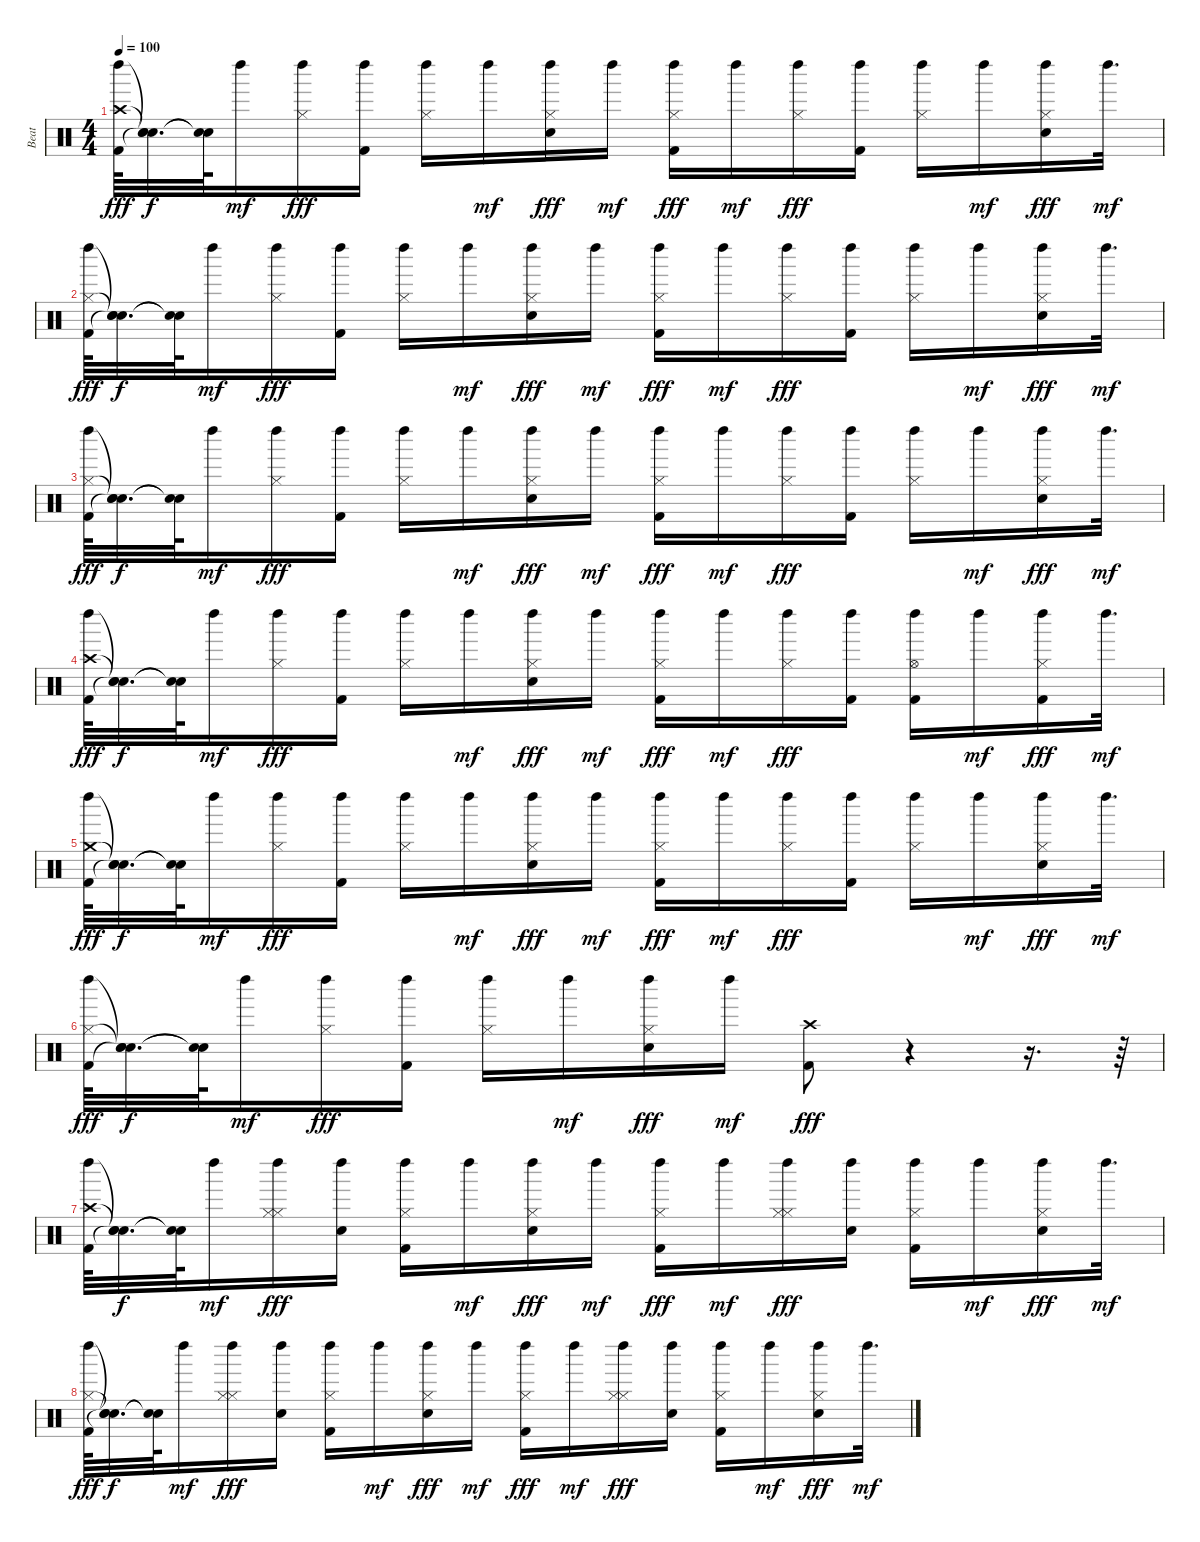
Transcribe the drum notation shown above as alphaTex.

\track ("Beat" "Beat") {instrument percussion}
\staff {score}
\articulation defaults
\ts (4 4)
\tempo 100
\clef neutral
\ks c
("Left Maraca (hit)" "Crash high (hit)" "Kick (hit) 2").64{dy fff} ("Snare (hit)"{t} "Snare (hit)"{t} "Snare (hit)"{t}).32{d dy f} ("Snare (hit)"{t} "Snare (hit)"{t}).64 "Left Maraca (hit)".16{dy mf} ("Left Maraca (hit)" "Hi-Hat (closed)").16{dy fff} ("Left Maraca (hit)" "Kick (hit) 2").16 ("Left Maraca (hit)" "Hi-Hat (closed)").16 "Left Maraca (hit)".16{dy mf} ("Left Maraca (hit)" "Hi-Hat (closed)" "Electric Snare (hit)").16{dy fff} "Left Maraca (hit)".16{dy mf} ("Left Maraca (hit)" "Hi-Hat (closed)" "Kick (hit) 2").16{dy fff} "Left Maraca (hit)".16{dy mf} ("Left Maraca (hit)" "Hi-Hat (closed)").16{dy fff} ("Left Maraca (hit)" "Kick (hit) 2").16 ("Left Maraca (hit)" "Hi-Hat (closed)").16 "Left Maraca (hit)".16{dy mf} ("Left Maraca (hit)" "Hi-Hat (closed)" "Electric Snare (hit)").16{dy fff} "Left Maraca (hit)".32{d dy mf} |
("Left Maraca (hit)" "Hi-Hat (closed)" "Kick (hit) 2").64{dy fff} ("Snare (hit)"{t} "Snare (hit)"{t} "Snare (hit)"{t}).32{d dy f} ("Snare (hit)"{t} "Snare (hit)"{t}).64 "Left Maraca (hit)".16{dy mf} ("Left Maraca (hit)" "Hi-Hat (closed)").16{dy fff} ("Left Maraca (hit)" "Kick (hit) 2").16 ("Left Maraca (hit)" "Hi-Hat (closed)").16 "Left Maraca (hit)".16{dy mf} ("Left Maraca (hit)" "Hi-Hat (closed)" "Electric Snare (hit)").16{dy fff} "Left Maraca (hit)".16{dy mf} ("Left Maraca (hit)" "Hi-Hat (closed)" "Kick (hit) 2").16{dy fff} "Left Maraca (hit)".16{dy mf} ("Left Maraca (hit)" "Hi-Hat (closed)").16{dy fff} ("Left Maraca (hit)" "Kick (hit) 2").16 ("Left Maraca (hit)" "Hi-Hat (closed)").16 "Left Maraca (hit)".16{dy mf} ("Left Maraca (hit)" "Hi-Hat (closed)" "Electric Snare (hit)").16{dy fff} "Left Maraca (hit)".32{d dy mf} |
("Left Maraca (hit)" "Hi-Hat (closed)" "Kick (hit) 2").64{dy fff} ("Snare (hit)"{t} "Snare (hit)"{t} "Snare (hit)"{t}).32{d dy f} ("Snare (hit)"{t} "Snare (hit)"{t}).64 "Left Maraca (hit)".16{dy mf} ("Left Maraca (hit)" "Hi-Hat (closed)").16{dy fff} ("Left Maraca (hit)" "Kick (hit) 2").16 ("Left Maraca (hit)" "Hi-Hat (closed)").16 "Left Maraca (hit)".16{dy mf} ("Left Maraca (hit)" "Hi-Hat (closed)" "Electric Snare (hit)").16{dy fff} "Left Maraca (hit)".16{dy mf} ("Left Maraca (hit)" "Hi-Hat (closed)" "Kick (hit) 2").16{dy fff} "Left Maraca (hit)".16{dy mf} ("Left Maraca (hit)" "Hi-Hat (closed)").16{dy fff} ("Left Maraca (hit)" "Kick (hit) 2").16 ("Left Maraca (hit)" "Hi-Hat (closed)").16 "Left Maraca (hit)".16{dy mf} ("Left Maraca (hit)" "Hi-Hat (closed)" "Electric Snare (hit)").16{dy fff} "Left Maraca (hit)".32{d dy mf} |
("Left Maraca (hit)" "Crash high (hit)" "Kick (hit) 2").64{dy fff} ("Snare (hit)"{t} "Snare (hit)"{t} "Snare (hit)"{t}).32{d dy f} ("Snare (hit)"{t} "Snare (hit)"{t}).64 "Left Maraca (hit)".16{dy mf} ("Left Maraca (hit)" "Hi-Hat (closed)").16{dy fff} ("Left Maraca (hit)" "Kick (hit) 2").16 ("Left Maraca (hit)" "Hi-Hat (closed)").16 "Left Maraca (hit)".16{dy mf} ("Left Maraca (hit)" "Hi-Hat (closed)" "Electric Snare (hit)").16{dy fff} "Left Maraca (hit)".16{dy mf} ("Left Maraca (hit)" "Hi-Hat (closed)" "Kick (hit) 2").16{dy fff} "Left Maraca (hit)".16{dy mf} ("Left Maraca (hit)" "Hi-Hat (closed)").16{dy fff} ("Left Maraca (hit)" "Kick (hit) 2").16 ("Left Maraca (hit)" "Hi-Hat (open)" "Kick (hit) 2").16 "Left Maraca (hit)".16{dy mf} ("Kick (hit) 2" "Left Maraca (hit)" "Hi-Hat (closed)").16{dy fff} "Left Maraca (hit)".32{d dy mf} |
("Left Maraca (hit)" "Crash medium (hit)" "Kick (hit) 2").64{dy fff} ("Snare (hit)"{t} "Snare (hit)"{t} "Snare (hit)"{t}).32{d dy f} ("Snare (hit)"{t} "Snare (hit)"{t}).64 "Left Maraca (hit)".16{dy mf} ("Left Maraca (hit)" "Hi-Hat (closed)").16{dy fff} ("Left Maraca (hit)" "Kick (hit) 2").16 ("Left Maraca (hit)" "Hi-Hat (closed)").16 "Left Maraca (hit)".16{dy mf} ("Left Maraca (hit)" "Hi-Hat (closed)" "Electric Snare (hit)").16{dy fff} "Left Maraca (hit)".16{dy mf} ("Left Maraca (hit)" "Hi-Hat (closed)" "Kick (hit) 2").16{dy fff} "Left Maraca (hit)".16{dy mf} ("Left Maraca (hit)" "Hi-Hat (closed)").16{dy fff} ("Left Maraca (hit)" "Kick (hit) 2").16 ("Left Maraca (hit)" "Hi-Hat (closed)").16 "Left Maraca (hit)".16{dy mf} ("Left Maraca (hit)" "Hi-Hat (closed)" "Electric Snare (hit)").16{dy fff} "Left Maraca (hit)".32{d dy mf} |
("Left Maraca (hit)" "Hi-Hat (closed)" "Kick (hit) 2").64{dy fff} ("Snare (hit)"{t} "Snare (hit)"{t} "Snare (hit)"{t}).32{d dy f} ("Snare (hit)"{t} "Snare (hit)"{t}).64 "Left Maraca (hit)".16{dy mf} ("Left Maraca (hit)" "Hi-Hat (closed)").16{dy fff} ("Left Maraca (hit)" "Kick (hit) 2").16 ("Left Maraca (hit)" "Hi-Hat (closed)").16 "Left Maraca (hit)".16{dy mf} ("Left Maraca (hit)" "Hi-Hat (closed)" "Electric Snare (hit)").16{dy fff} "Left Maraca (hit)".16{dy mf} ("Crash high (hit)" "Kick (hit) 2").8{dy fff} r.4 r.16{d} r.64 |
("Left Maraca (hit)" "Crash high (hit)" "Kick (hit) 2").64 ("Snare (hit)"{t} "Snare (hit)"{t} "Snare (hit)"{t}).32{d dy f} ("Snare (hit)"{t} "Snare (hit)"{t}).64 "Left Maraca (hit)".16{dy mf} ("Hi-Hat (closed)" "Left Maraca (hit)" "Hi-Hat (closed)").16{dy fff} ("Left Maraca (hit)" "Electric Snare (hit)").16 ("Left Maraca (hit)" "Kick (hit) 2" "Hi-Hat (closed)").16 "Left Maraca (hit)".16{dy mf} ("Left Maraca (hit)" "Hi-Hat (closed)" "Electric Snare (hit)").16{dy fff} "Left Maraca (hit)".16{dy mf} ("Left Maraca (hit)" "Hi-Hat (closed)" "Kick (hit) 2").16{dy fff} "Left Maraca (hit)".16{dy mf} ("Hi-Hat (closed)" "Left Maraca (hit)" "Hi-Hat (closed)").16{dy fff} ("Left Maraca (hit)" "Electric Snare (hit)").16 ("Left Maraca (hit)" "Kick (hit) 2" "Hi-Hat (closed)").16 "Left Maraca (hit)".16{dy mf} ("Left Maraca (hit)" "Hi-Hat (closed)" "Electric Snare (hit)").16{dy fff} "Left Maraca (hit)".32{d dy mf} |
("Left Maraca (hit)" "Hi-Hat (closed)" "Kick (hit) 2").64{dy fff} ("Snare (hit)"{t} "Snare (hit)"{t} "Snare (hit)"{t}).32{d dy f} ("Snare (hit)"{t} "Snare (hit)"{t}).64 "Left Maraca (hit)".16{dy mf} ("Hi-Hat (closed)" "Left Maraca (hit)" "Hi-Hat (closed)").16{dy fff} ("Left Maraca (hit)" "Electric Snare (hit)").16 ("Left Maraca (hit)" "Kick (hit) 2" "Hi-Hat (closed)").16 "Left Maraca (hit)".16{dy mf} ("Left Maraca (hit)" "Hi-Hat (closed)" "Electric Snare (hit)").16{dy fff} "Left Maraca (hit)".16{dy mf} ("Left Maraca (hit)" "Hi-Hat (closed)" "Kick (hit) 2").16{dy fff} "Left Maraca (hit)".16{dy mf} ("Hi-Hat (closed)" "Left Maraca (hit)" "Hi-Hat (closed)").16{dy fff} ("Left Maraca (hit)" "Electric Snare (hit)").16 ("Left Maraca (hit)" "Kick (hit) 2" "Hi-Hat (closed)").16 "Left Maraca (hit)".16{dy mf} ("Left Maraca (hit)" "Hi-Hat (closed)" "Electric Snare (hit)").16{dy fff} "Left Maraca (hit)".32{d dy mf}
